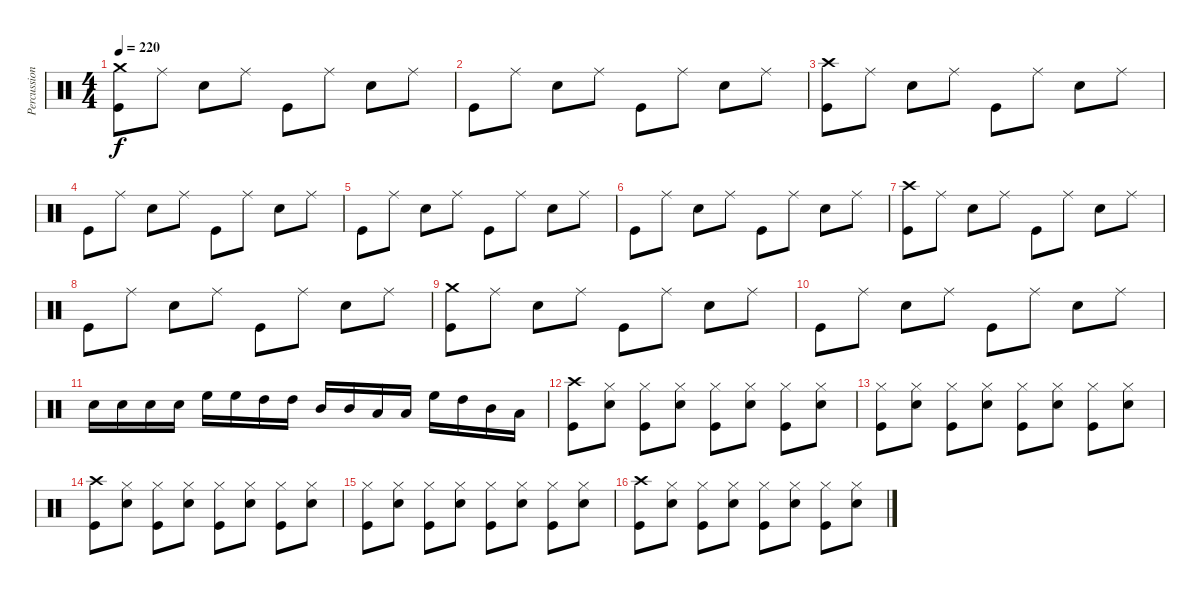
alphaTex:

\track ("Percussions" "Percussion") {instrument percussion}
\staff {score}
\articulation defaults
\ts (4 4)
\tempo 220
\clef neutral
\ks c
("Crash medium (hit)" "Kick (hit)").8{dy f} "Ride (middle)".8 "Electric Snare (hit)".8 "Ride (middle)".8 "Kick (hit)".8 "Ride (middle)".8 "Electric Snare (hit)".8 "Ride (middle)".8 |
"Kick (hit)".8 "Ride (middle)".8 "Electric Snare (hit)".8 "Ride (middle)".8 "Kick (hit)".8 "Ride (middle)".8 "Electric Snare (hit)".8 "Ride (middle)".8 |
("Crash high (hit)" "Kick (hit)").8 "Ride (middle)".8 "Electric Snare (hit)".8 "Ride (middle)".8 "Kick (hit)".8 "Ride (middle)".8 "Electric Snare (hit)".8 "Ride (middle)".8 |
"Kick (hit)".8 "Ride (middle)".8 "Electric Snare (hit)".8 "Ride (middle)".8 "Kick (hit)".8 "Ride (middle)".8 "Electric Snare (hit)".8 "Ride (middle)".8 |
"Kick (hit)".8 "Ride (middle)".8 "Electric Snare (hit)".8 "Ride (middle)".8 "Kick (hit)".8 "Ride (middle)".8 "Electric Snare (hit)".8 "Ride (middle)".8 |
"Kick (hit)".8 "Ride (middle)".8 "Electric Snare (hit)".8 "Ride (middle)".8 "Kick (hit)".8 "Ride (middle)".8 "Electric Snare (hit)".8 "Ride (middle)".8 |
("Crash high (hit)" "Kick (hit)").8 "Ride (middle)".8 "Electric Snare (hit)".8 "Ride (middle)".8 "Kick (hit)".8 "Ride (middle)".8 "Electric Snare (hit)".8 "Ride (middle)".8 |
"Kick (hit)".8 "Ride (middle)".8 "Electric Snare (hit)".8 "Ride (middle)".8 "Kick (hit)".8 "Ride (middle)".8 "Electric Snare (hit)".8 "Ride (middle)".8 |
("Crash medium (hit)" "Kick (hit)").8 "Ride (middle)".8 "Electric Snare (hit)".8 "Ride (middle)".8 "Kick (hit)".8 "Ride (middle)".8 "Electric Snare (hit)".8 "Ride (middle)".8 |
"Kick (hit)".8 "Ride (middle)".8 "Electric Snare (hit)".8 "Ride (middle)".8 "Kick (hit)".8 "Ride (middle)".8 "Electric Snare (hit)".8 "Ride (middle)".8 |
"Electric Snare (hit)".16 "Electric Snare (hit)".16 "Electric Snare (hit)".16 "Electric Snare (hit)".16 "High Floor Tom (hit)".16 "High Floor Tom (hit)".16 "High Tom (hit)".16 "High Tom (hit)".16 "Mid Tom (hit)".16 "Mid Tom (hit)".16 "Low Tom (hit)".16 "Low Tom (hit)".16 "High Floor Tom (hit)".16 "High Tom (hit)".16 "Mid Tom (hit)".16 "Low Tom (hit)".16 |
("Crash high (hit)" "Kick (hit)").8 ("Hi-Hat (closed)" "Electric Snare (hit)").8 ("Hi-Hat (closed)" "Kick (hit)").8 ("Hi-Hat (closed)" "Electric Snare (hit)").8 ("Hi-Hat (closed)" "Kick (hit)").8 ("Hi-Hat (closed)" "Electric Snare (hit)").8 ("Hi-Hat (closed)" "Kick (hit)").8 ("Hi-Hat (closed)" "Electric Snare (hit)").8 |
("Hi-Hat (closed)" "Kick (hit)").8 ("Hi-Hat (closed)" "Electric Snare (hit)").8 ("Hi-Hat (closed)" "Kick (hit)").8 ("Hi-Hat (closed)" "Electric Snare (hit)").8 ("Hi-Hat (closed)" "Kick (hit)").8 ("Hi-Hat (closed)" "Electric Snare (hit)").8 ("Hi-Hat (closed)" "Kick (hit)").8 ("Hi-Hat (closed)" "Electric Snare (hit)").8 |
("Crash high (hit)" "Kick (hit)").8 ("Hi-Hat (closed)" "Electric Snare (hit)").8 ("Hi-Hat (closed)" "Kick (hit)").8 ("Hi-Hat (closed)" "Electric Snare (hit)").8 ("Hi-Hat (closed)" "Kick (hit)").8 ("Hi-Hat (closed)" "Electric Snare (hit)").8 ("Hi-Hat (closed)" "Kick (hit)").8 ("Hi-Hat (closed)" "Electric Snare (hit)").8 |
("Hi-Hat (closed)" "Kick (hit)").8 ("Hi-Hat (closed)" "Electric Snare (hit)").8 ("Hi-Hat (closed)" "Kick (hit)").8 ("Hi-Hat (closed)" "Electric Snare (hit)").8 ("Hi-Hat (closed)" "Kick (hit)").8 ("Hi-Hat (closed)" "Electric Snare (hit)").8 ("Hi-Hat (closed)" "Kick (hit)").8 ("Hi-Hat (closed)" "Electric Snare (hit)").8 |
("Crash high (hit)" "Kick (hit)").8 ("Hi-Hat (closed)" "Electric Snare (hit)").8 ("Hi-Hat (closed)" "Kick (hit)").8 ("Hi-Hat (closed)" "Electric Snare (hit)").8 ("Hi-Hat (closed)" "Kick (hit)").8 ("Hi-Hat (closed)" "Electric Snare (hit)").8 ("Hi-Hat (closed)" "Kick (hit)").8 ("Hi-Hat (closed)" "Electric Snare (hit)").8
